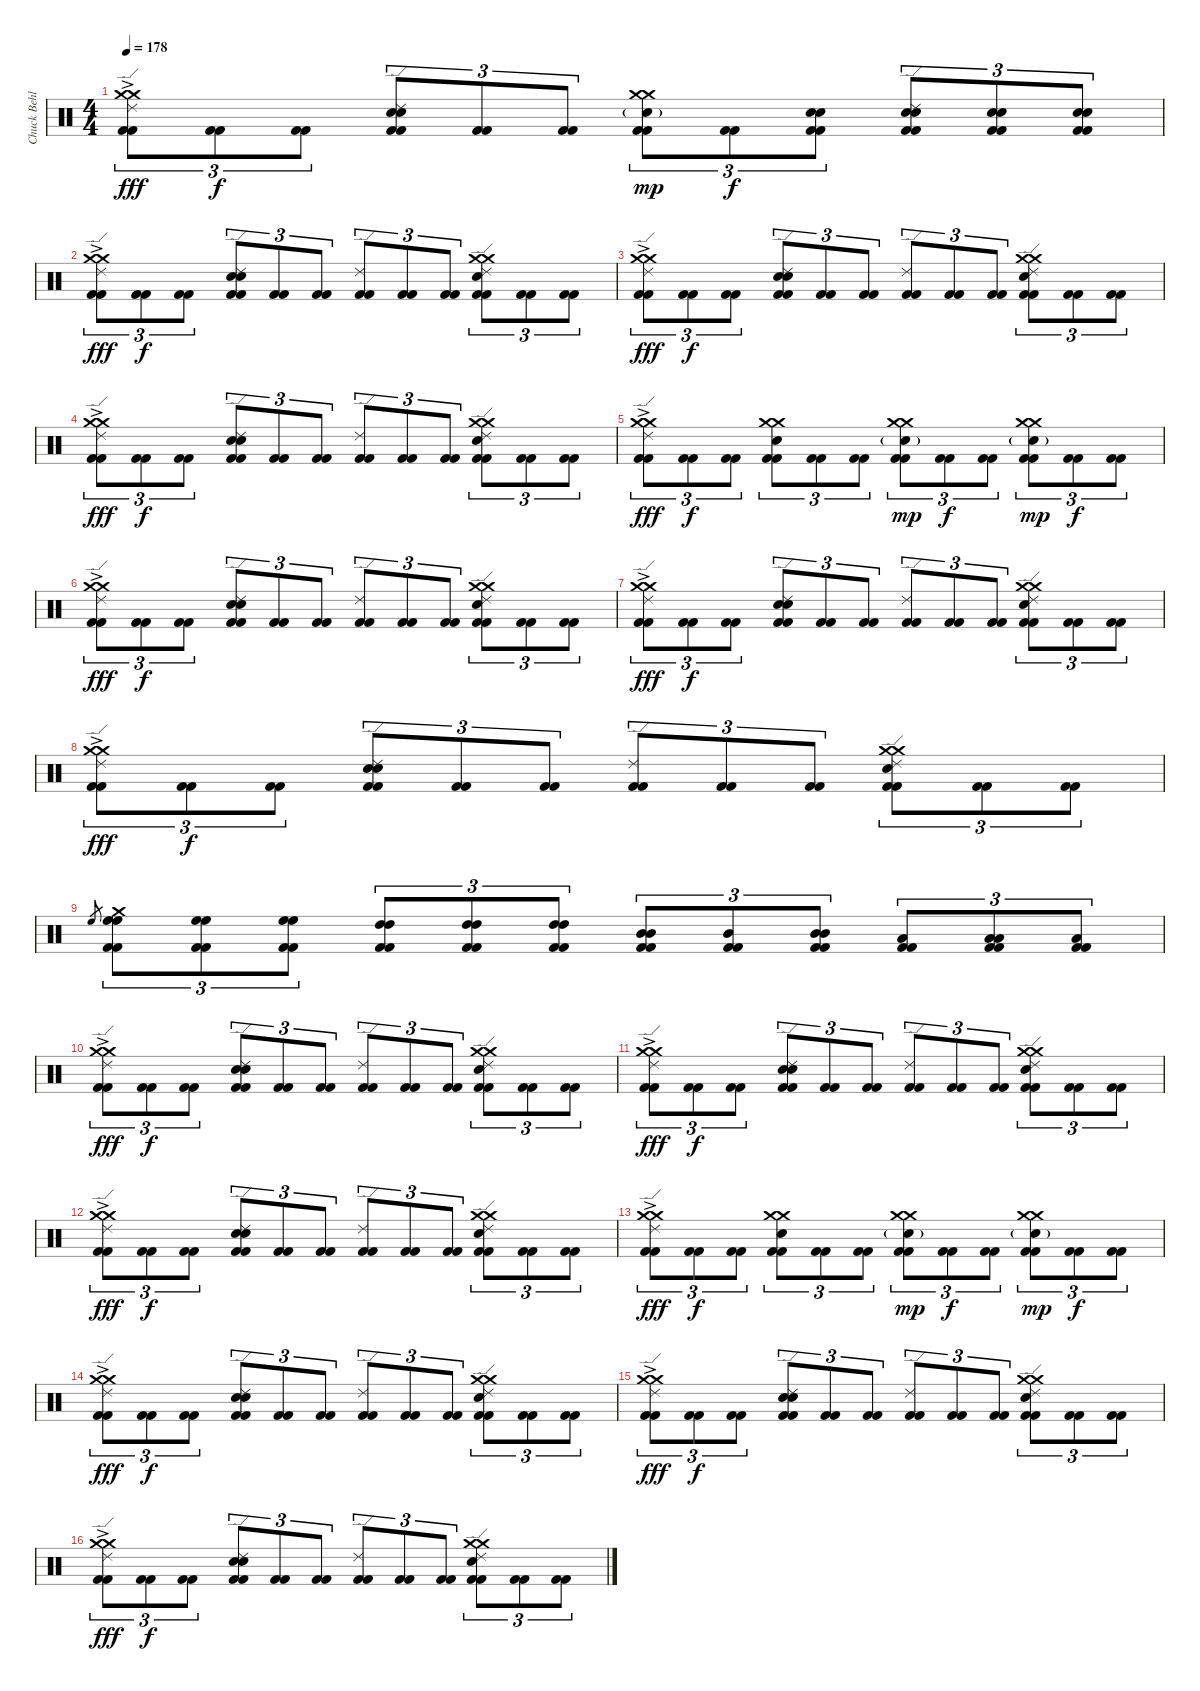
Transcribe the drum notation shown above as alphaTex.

\track ("Chuck Behler" "Chuck Behl") {instrument percussion}
\staff {score}
\articulation defaults
\ts (4 4)
\tempo 178
\clef neutral
\ks c
("Crash medium (hit)"{ac} "Crash medium (hit)"{ac} "Ride (edge) 2" "Kick (hit) 2" "Kick (hit) 2").8{tu (3 2) dy fff} ("Kick (hit) 2" "Kick (hit) 2").8{tu (3 2) dy f} ("Kick (hit) 2" "Kick (hit) 2").8{tu (3 2)} ("Ride (edge) 2" "Electric Snare (hit)" "Snare (hit) 2" "Kick (hit) 2" "Kick (hit) 2").8{tu (3 2)} ("Kick (hit) 2" "Kick (hit) 2").8{tu (3 2)} ("Kick (hit) 2" "Kick (hit) 2").8{tu (3 2)} ("Crash medium (hit)" "Crash medium (hit)" "Snare (hit) 2"{g} "Kick (hit) 2" "Kick (hit) 2").8{tu (3 2) dy mp} ("Kick (hit) 2" "Kick (hit) 2").8{tu (3 2) dy f} ("Snare (hit) 2" "Electric Snare (hit)" "Kick (hit) 2" "Kick (hit) 2").8{tu (3 2)} ("Electric Snare (hit)" "Ride (edge) 2" "Snare (hit) 2" "Kick (hit) 2" "Kick (hit) 2").8{tu (3 2)} ("Snare (hit) 2" "Electric Snare (hit)" "Kick (hit) 2" "Kick (hit) 2").8{tu (3 2)} ("Snare (hit) 2" "Electric Snare (hit)" "Kick (hit) 2" "Kick (hit) 2").8{tu (3 2)} |
("Crash medium (hit)"{ac} "Crash medium (hit)"{ac} "Ride (edge) 2" "Kick (hit) 2" "Kick (hit) 2").8{tu (3 2) dy fff} ("Kick (hit) 2" "Kick (hit) 2").8{tu (3 2) dy f} ("Kick (hit) 2" "Kick (hit) 2").8{tu (3 2)} ("Ride (edge) 2" "Snare (hit) 2" "Electric Snare (hit)" "Kick (hit) 2" "Kick (hit) 2").8{tu (3 2)} ("Kick (hit) 2" "Kick (hit) 2").8{tu (3 2)} ("Kick (hit) 2" "Kick (hit) 2").8{tu (3 2)} ("Ride (edge) 2" "Kick (hit) 2" "Kick (hit) 2").8{tu (3 2)} ("Kick (hit) 2" "Kick (hit) 2").8{tu (3 2)} ("Kick (hit) 2" "Kick (hit) 2").8{tu (3 2)} ("Crash medium (hit)" "Crash medium (hit)" "Electric Snare (hit)" "Ride (edge) 2" "Kick (hit) 2" "Kick (hit) 2").8{tu (3 2)} ("Kick (hit) 2" "Kick (hit) 2").8{tu (3 2)} ("Kick (hit) 2" "Kick (hit) 2").8{tu (3 2)} |
("Crash medium (hit)"{ac} "Crash medium (hit)"{ac} "Ride (edge) 2" "Kick (hit) 2" "Kick (hit) 2").8{tu (3 2) dy fff} ("Kick (hit) 2" "Kick (hit) 2").8{tu (3 2) dy f} ("Kick (hit) 2" "Kick (hit) 2").8{tu (3 2)} ("Ride (edge) 2" "Snare (hit) 2" "Electric Snare (hit)" "Kick (hit) 2" "Kick (hit) 2").8{tu (3 2)} ("Kick (hit) 2" "Kick (hit) 2").8{tu (3 2)} ("Kick (hit) 2" "Kick (hit) 2").8{tu (3 2)} ("Ride (edge) 2" "Kick (hit) 2" "Kick (hit) 2").8{tu (3 2)} ("Kick (hit) 2" "Kick (hit) 2").8{tu (3 2)} ("Kick (hit) 2" "Kick (hit) 2").8{tu (3 2)} ("Crash medium (hit)" "Crash medium (hit)" "Electric Snare (hit)" "Ride (edge) 2" "Kick (hit) 2" "Kick (hit) 2").8{tu (3 2)} ("Kick (hit) 2" "Kick (hit) 2").8{tu (3 2)} ("Kick (hit) 2" "Kick (hit) 2").8{tu (3 2)} |
("Crash medium (hit)"{ac} "Crash medium (hit)"{ac} "Ride (edge) 2" "Kick (hit) 2" "Kick (hit) 2").8{tu (3 2) dy fff} ("Kick (hit) 2" "Kick (hit) 2").8{tu (3 2) dy f} ("Kick (hit) 2" "Kick (hit) 2").8{tu (3 2)} ("Ride (edge) 2" "Snare (hit) 2" "Electric Snare (hit)" "Kick (hit) 2" "Kick (hit) 2").8{tu (3 2)} ("Kick (hit) 2" "Kick (hit) 2").8{tu (3 2)} ("Kick (hit) 2" "Kick (hit) 2").8{tu (3 2)} ("Ride (edge) 2" "Kick (hit) 2" "Kick (hit) 2").8{tu (3 2)} ("Kick (hit) 2" "Kick (hit) 2").8{tu (3 2)} ("Kick (hit) 2" "Kick (hit) 2").8{tu (3 2)} ("Crash medium (hit)" "Crash medium (hit)" "Electric Snare (hit)" "Ride (edge) 2" "Kick (hit) 2" "Kick (hit) 2").8{tu (3 2)} ("Kick (hit) 2" "Kick (hit) 2").8{tu (3 2)} ("Kick (hit) 2" "Kick (hit) 2").8{tu (3 2)} |
("Crash medium (hit)"{ac} "Crash medium (hit)"{ac} "Ride (edge) 2" "Kick (hit) 2" "Kick (hit) 2").8{tu (3 2) dy fff} ("Kick (hit) 2" "Kick (hit) 2").8{tu (3 2) dy f} ("Kick (hit) 2" "Kick (hit) 2").8{tu (3 2)} ("Crash medium (hit)" "Crash medium (hit)" "Electric Snare (hit)" "Kick (hit) 2" "Kick (hit) 2").8{tu (3 2)} ("Kick (hit) 2" "Kick (hit) 2").8{tu (3 2)} ("Kick (hit) 2" "Kick (hit) 2").8{tu (3 2)} ("Crash medium (hit)" "Crash medium (hit)" "Snare (hit) 2"{g} "Kick (hit) 2" "Kick (hit) 2").8{tu (3 2) dy mp} ("Kick (hit) 2" "Kick (hit) 2").8{tu (3 2) dy f} ("Kick (hit) 2" "Kick (hit) 2").8{tu (3 2)} ("Crash medium (hit)" "Crash medium (hit)" "Snare (hit) 2"{g} "Kick (hit) 2" "Kick (hit) 2").8{tu (3 2) dy mp} ("Kick (hit) 2" "Kick (hit) 2").8{tu (3 2) dy f} ("Kick (hit) 2" "Kick (hit) 2").8{tu (3 2)} |
("Crash medium (hit)"{ac} "Crash medium (hit)"{ac} "Ride (edge) 2" "Kick (hit) 2" "Kick (hit) 2").8{tu (3 2) dy fff} ("Kick (hit) 2" "Kick (hit) 2").8{tu (3 2) dy f} ("Kick (hit) 2" "Kick (hit) 2").8{tu (3 2)} ("Ride (edge) 2" "Snare (hit) 2" "Electric Snare (hit)" "Kick (hit) 2" "Kick (hit) 2").8{tu (3 2)} ("Kick (hit) 2" "Kick (hit) 2").8{tu (3 2)} ("Kick (hit) 2" "Kick (hit) 2").8{tu (3 2)} ("Ride (edge) 2" "Kick (hit) 2" "Kick (hit) 2").8{tu (3 2)} ("Kick (hit) 2" "Kick (hit) 2").8{tu (3 2)} ("Kick (hit) 2" "Kick (hit) 2").8{tu (3 2)} ("Crash medium (hit)" "Crash medium (hit)" "Electric Snare (hit)" "Ride (edge) 2" "Kick (hit) 2" "Kick (hit) 2").8{tu (3 2)} ("Kick (hit) 2" "Kick (hit) 2").8{tu (3 2)} ("Kick (hit) 2" "Kick (hit) 2").8{tu (3 2)} |
("Crash medium (hit)"{ac} "Crash medium (hit)"{ac} "Ride (edge) 2" "Kick (hit) 2" "Kick (hit) 2").8{tu (3 2) dy fff} ("Kick (hit) 2" "Kick (hit) 2").8{tu (3 2) dy f} ("Kick (hit) 2" "Kick (hit) 2").8{tu (3 2)} ("Ride (edge) 2" "Snare (hit) 2" "Electric Snare (hit)" "Kick (hit) 2" "Kick (hit) 2").8{tu (3 2)} ("Kick (hit) 2" "Kick (hit) 2").8{tu (3 2)} ("Kick (hit) 2" "Kick (hit) 2").8{tu (3 2)} ("Ride (edge) 2" "Kick (hit) 2" "Kick (hit) 2").8{tu (3 2)} ("Kick (hit) 2" "Kick (hit) 2").8{tu (3 2)} ("Kick (hit) 2" "Kick (hit) 2").8{tu (3 2)} ("Crash medium (hit)" "Crash medium (hit)" "Electric Snare (hit)" "Ride (edge) 2" "Kick (hit) 2" "Kick (hit) 2").8{tu (3 2)} ("Kick (hit) 2" "Kick (hit) 2").8{tu (3 2)} ("Kick (hit) 2" "Kick (hit) 2").8{tu (3 2)} |
("Crash medium (hit)"{ac} "Crash medium (hit)"{ac} "Ride (edge) 2" "Kick (hit) 2" "Kick (hit) 2").8{tu (3 2) dy fff} ("Kick (hit) 2" "Kick (hit) 2").8{tu (3 2) dy f} ("Kick (hit) 2" "Kick (hit) 2").8{tu (3 2)} ("Ride (edge) 2" "Snare (hit) 2" "Electric Snare (hit)" "Kick (hit) 2" "Kick (hit) 2").8{tu (3 2)} ("Kick (hit) 2" "Kick (hit) 2").8{tu (3 2)} ("Kick (hit) 2" "Kick (hit) 2").8{tu (3 2)} ("Ride (edge) 2" "Kick (hit) 2" "Kick (hit) 2").8{tu (3 2)} ("Kick (hit) 2" "Kick (hit) 2").8{tu (3 2)} ("Kick (hit) 2" "Kick (hit) 2").8{tu (3 2)} ("Crash medium (hit)" "Crash medium (hit)" "Electric Snare (hit)" "Ride (edge) 2" "Kick (hit) 2" "Kick (hit) 2").8{tu (3 2)} ("Kick (hit) 2" "Kick (hit) 2").8{tu (3 2)} ("Kick (hit) 2" "Kick (hit) 2").8{tu (3 2)} |
"High Floor Tom (hit)".8{gr} ("Crash medium (hit)" "High Floor Tom (hit)" "High Floor Tom (hit)" "Kick (hit) 2" "Kick (hit) 2").8{tu (3 2)} ("High Floor Tom (hit)" "High Floor Tom (hit)" "Kick (hit) 2" "Kick (hit) 2").8{tu (3 2)} ("High Floor Tom (hit)" "High Floor Tom (hit)" "Kick (hit) 2" "Kick (hit) 2").8{tu (3 2)} ("High Tom (hit)" "High Tom (hit)" "Kick (hit) 2" "Kick (hit) 2").8{tu (3 2)} ("High Tom (hit)" "High Tom (hit)" "Kick (hit) 2" "Kick (hit) 2").8{tu (3 2)} ("High Tom (hit)" "High Tom (hit)" "Kick (hit) 2" "Kick (hit) 2").8{tu (3 2)} ("Mid Tom (hit)" "Mid Tom (hit)" "Kick (hit) 2" "Kick (hit) 2").8{tu (3 2)} ("Mid Tom (hit)" "Kick (hit) 2" "Kick (hit) 2").8{tu (3 2)} ("Mid Tom (hit)" "Mid Tom (hit)" "Kick (hit) 2" "Kick (hit) 2").8{tu (3 2)} ("Low Tom (hit)" "Kick (hit) 2" "Kick (hit) 2").8{tu (3 2)} ("Low Tom (hit)" "Low Tom (hit)" "Kick (hit) 2" "Kick (hit) 2").8{tu (3 2)} ("Low Tom (hit)" "Kick (hit) 2" "Kick (hit) 2").8{tu (3 2)} |
("Crash medium (hit)"{ac} "Crash medium (hit)"{ac} "Ride (edge) 2" "Kick (hit) 2" "Kick (hit) 2").8{tu (3 2) dy fff} ("Kick (hit) 2" "Kick (hit) 2").8{tu (3 2) dy f} ("Kick (hit) 2" "Kick (hit) 2").8{tu (3 2)} ("Ride (edge) 2" "Snare (hit) 2" "Electric Snare (hit)" "Kick (hit) 2" "Kick (hit) 2").8{tu (3 2)} ("Kick (hit) 2" "Kick (hit) 2").8{tu (3 2)} ("Kick (hit) 2" "Kick (hit) 2").8{tu (3 2)} ("Ride (edge) 2" "Kick (hit) 2" "Kick (hit) 2").8{tu (3 2)} ("Kick (hit) 2" "Kick (hit) 2").8{tu (3 2)} ("Kick (hit) 2" "Kick (hit) 2").8{tu (3 2)} ("Crash medium (hit)" "Crash medium (hit)" "Electric Snare (hit)" "Ride (edge) 2" "Kick (hit) 2" "Kick (hit) 2").8{tu (3 2)} ("Kick (hit) 2" "Kick (hit) 2").8{tu (3 2)} ("Kick (hit) 2" "Kick (hit) 2").8{tu (3 2)} |
("Crash medium (hit)"{ac} "Crash medium (hit)"{ac} "Ride (edge) 2" "Kick (hit) 2" "Kick (hit) 2").8{tu (3 2) dy fff} ("Kick (hit) 2" "Kick (hit) 2").8{tu (3 2) dy f} ("Kick (hit) 2" "Kick (hit) 2").8{tu (3 2)} ("Ride (edge) 2" "Snare (hit) 2" "Electric Snare (hit)" "Kick (hit) 2" "Kick (hit) 2").8{tu (3 2)} ("Kick (hit) 2" "Kick (hit) 2").8{tu (3 2)} ("Kick (hit) 2" "Kick (hit) 2").8{tu (3 2)} ("Ride (edge) 2" "Kick (hit) 2" "Kick (hit) 2").8{tu (3 2)} ("Kick (hit) 2" "Kick (hit) 2").8{tu (3 2)} ("Kick (hit) 2" "Kick (hit) 2").8{tu (3 2)} ("Crash medium (hit)" "Crash medium (hit)" "Electric Snare (hit)" "Ride (edge) 2" "Kick (hit) 2" "Kick (hit) 2").8{tu (3 2)} ("Kick (hit) 2" "Kick (hit) 2").8{tu (3 2)} ("Kick (hit) 2" "Kick (hit) 2").8{tu (3 2)} |
("Crash medium (hit)"{ac} "Crash medium (hit)"{ac} "Ride (edge) 2" "Kick (hit) 2" "Kick (hit) 2").8{tu (3 2) dy fff} ("Kick (hit) 2" "Kick (hit) 2").8{tu (3 2) dy f} ("Kick (hit) 2" "Kick (hit) 2").8{tu (3 2)} ("Ride (edge) 2" "Snare (hit) 2" "Electric Snare (hit)" "Kick (hit) 2" "Kick (hit) 2").8{tu (3 2)} ("Kick (hit) 2" "Kick (hit) 2").8{tu (3 2)} ("Kick (hit) 2" "Kick (hit) 2").8{tu (3 2)} ("Ride (edge) 2" "Kick (hit) 2" "Kick (hit) 2").8{tu (3 2)} ("Kick (hit) 2" "Kick (hit) 2").8{tu (3 2)} ("Kick (hit) 2" "Kick (hit) 2").8{tu (3 2)} ("Crash medium (hit)" "Crash medium (hit)" "Electric Snare (hit)" "Ride (edge) 2" "Kick (hit) 2" "Kick (hit) 2").8{tu (3 2)} ("Kick (hit) 2" "Kick (hit) 2").8{tu (3 2)} ("Kick (hit) 2" "Kick (hit) 2").8{tu (3 2)} |
("Crash medium (hit)"{ac} "Crash medium (hit)"{ac} "Ride (edge) 2" "Kick (hit) 2" "Kick (hit) 2").8{tu (3 2) dy fff} ("Kick (hit) 2" "Kick (hit) 2").8{tu (3 2) dy f} ("Kick (hit) 2" "Kick (hit) 2").8{tu (3 2)} ("Crash medium (hit)" "Crash medium (hit)" "Electric Snare (hit)" "Kick (hit) 2" "Kick (hit) 2").8{tu (3 2)} ("Kick (hit) 2" "Kick (hit) 2").8{tu (3 2)} ("Kick (hit) 2" "Kick (hit) 2").8{tu (3 2)} ("Crash medium (hit)" "Crash medium (hit)" "Snare (hit) 2"{g} "Kick (hit) 2" "Kick (hit) 2").8{tu (3 2) dy mp} ("Kick (hit) 2" "Kick (hit) 2").8{tu (3 2) dy f} ("Kick (hit) 2" "Kick (hit) 2").8{tu (3 2)} ("Crash medium (hit)" "Crash medium (hit)" "Snare (hit) 2"{g} "Kick (hit) 2" "Kick (hit) 2").8{tu (3 2) dy mp} ("Kick (hit) 2" "Kick (hit) 2").8{tu (3 2) dy f} ("Kick (hit) 2" "Kick (hit) 2").8{tu (3 2)} |
("Crash medium (hit)"{ac} "Crash medium (hit)"{ac} "Ride (edge) 2" "Kick (hit) 2" "Kick (hit) 2").8{tu (3 2) dy fff} ("Kick (hit) 2" "Kick (hit) 2").8{tu (3 2) dy f} ("Kick (hit) 2" "Kick (hit) 2").8{tu (3 2)} ("Ride (edge) 2" "Snare (hit) 2" "Electric Snare (hit)" "Kick (hit) 2" "Kick (hit) 2").8{tu (3 2)} ("Kick (hit) 2" "Kick (hit) 2").8{tu (3 2)} ("Kick (hit) 2" "Kick (hit) 2").8{tu (3 2)} ("Ride (edge) 2" "Kick (hit) 2" "Kick (hit) 2").8{tu (3 2)} ("Kick (hit) 2" "Kick (hit) 2").8{tu (3 2)} ("Kick (hit) 2" "Kick (hit) 2").8{tu (3 2)} ("Crash medium (hit)" "Crash medium (hit)" "Electric Snare (hit)" "Ride (edge) 2" "Kick (hit) 2" "Kick (hit) 2").8{tu (3 2)} ("Kick (hit) 2" "Kick (hit) 2").8{tu (3 2)} ("Kick (hit) 2" "Kick (hit) 2").8{tu (3 2)} |
("Crash medium (hit)"{ac} "Crash medium (hit)"{ac} "Ride (edge) 2" "Kick (hit) 2" "Kick (hit) 2").8{tu (3 2) dy fff} ("Kick (hit) 2" "Kick (hit) 2").8{tu (3 2) dy f} ("Kick (hit) 2" "Kick (hit) 2").8{tu (3 2)} ("Ride (edge) 2" "Snare (hit) 2" "Electric Snare (hit)" "Kick (hit) 2" "Kick (hit) 2").8{tu (3 2)} ("Kick (hit) 2" "Kick (hit) 2").8{tu (3 2)} ("Kick (hit) 2" "Kick (hit) 2").8{tu (3 2)} ("Ride (edge) 2" "Kick (hit) 2" "Kick (hit) 2").8{tu (3 2)} ("Kick (hit) 2" "Kick (hit) 2").8{tu (3 2)} ("Kick (hit) 2" "Kick (hit) 2").8{tu (3 2)} ("Crash medium (hit)" "Crash medium (hit)" "Electric Snare (hit)" "Ride (edge) 2" "Kick (hit) 2" "Kick (hit) 2").8{tu (3 2)} ("Kick (hit) 2" "Kick (hit) 2").8{tu (3 2)} ("Kick (hit) 2" "Kick (hit) 2").8{tu (3 2)} |
("Crash medium (hit)"{ac} "Crash medium (hit)"{ac} "Ride (edge) 2" "Kick (hit) 2" "Kick (hit) 2").8{tu (3 2) dy fff} ("Kick (hit) 2" "Kick (hit) 2").8{tu (3 2) dy f} ("Kick (hit) 2" "Kick (hit) 2").8{tu (3 2)} ("Ride (edge) 2" "Snare (hit) 2" "Electric Snare (hit)" "Kick (hit) 2" "Kick (hit) 2").8{tu (3 2)} ("Kick (hit) 2" "Kick (hit) 2").8{tu (3 2)} ("Kick (hit) 2" "Kick (hit) 2").8{tu (3 2)} ("Ride (edge) 2" "Kick (hit) 2" "Kick (hit) 2").8{tu (3 2)} ("Kick (hit) 2" "Kick (hit) 2").8{tu (3 2)} ("Kick (hit) 2" "Kick (hit) 2").8{tu (3 2)} ("Crash medium (hit)" "Crash medium (hit)" "Electric Snare (hit)" "Ride (edge) 2" "Kick (hit) 2" "Kick (hit) 2").8{tu (3 2)} ("Kick (hit) 2" "Kick (hit) 2").8{tu (3 2)} ("Kick (hit) 2" "Kick (hit) 2").8{tu (3 2)}
